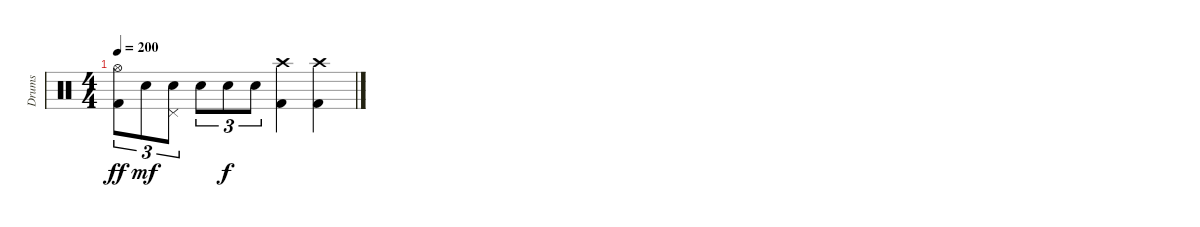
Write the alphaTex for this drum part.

\track ("Drums" "Drums") {instrument percussion}
\staff {score}
\articulation defaults
\ts (4 4)
\tempo 200
\clef neutral
\ks c
("Hi-Hat (open)" "Kick (hit) 2").8{tu (3 2) dy ff} "Electric Snare (hit)".8{tu (3 2) dy mf} ("Pedal Hi-Hat (hit)" "Electric Snare (hit)").8{tu (3 2)} "Electric Snare (hit)".8{tu (3 2)} "Electric Snare (hit)".8{tu (3 2) dy f} "Electric Snare (hit)".8{tu (3 2)} ("Crash high (hit)" "Kick (hit) 2").4 ("Crash high (hit)" "Kick (hit) 2").4
